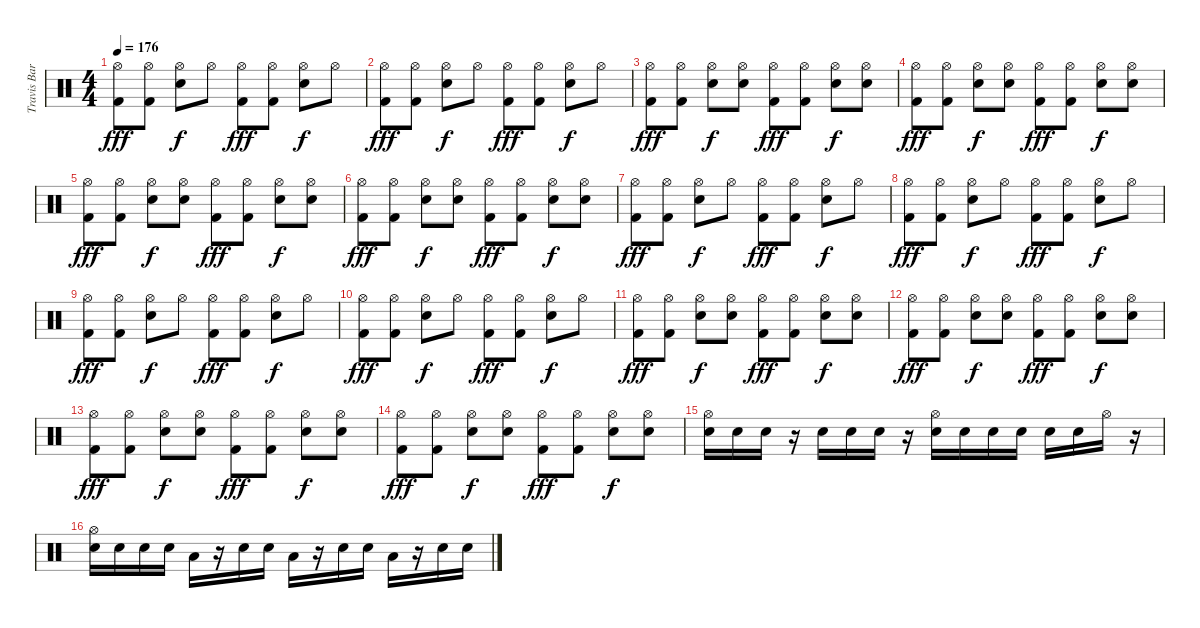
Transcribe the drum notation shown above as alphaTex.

\track ("Travis Barker - Drums" "Travis Bar") {instrument percussion}
\staff {score}
\articulation defaults
\ts (4 4)
\tempo 176
\clef neutral
\ks c
("Kick (hit) 2" "Hi-Hat (open)").8{dy fff} ("Kick (hit) 2" "Hi-Hat (open)").8 ("Snare (hit) 2" "Hi-Hat (open)").8{dy f} "Hi-Hat (open)".8 ("Kick (hit) 2" "Hi-Hat (open)").8{dy fff} ("Kick (hit) 2" "Hi-Hat (open)").8 ("Snare (hit) 2" "Hi-Hat (open)").8{dy f} "Hi-Hat (open)".8 |
("Kick (hit) 2" "Hi-Hat (open)").8{dy fff} ("Kick (hit) 2" "Hi-Hat (open)").8 ("Snare (hit) 2" "Hi-Hat (open)").8{dy f} "Hi-Hat (open)".8 ("Kick (hit) 2" "Hi-Hat (open)").8{dy fff} ("Kick (hit) 2" "Hi-Hat (open)").8 ("Snare (hit) 2" "Hi-Hat (open)").8{dy f} "Hi-Hat (open)".8 |
("Kick (hit) 2" "Hi-Hat (open)").8{dy fff} ("Kick (hit) 2" "Hi-Hat (open)").8 ("Snare (hit) 2" "Hi-Hat (open)").8{dy f} ("Snare (hit) 2" "Hi-Hat (open)").8 ("Kick (hit) 2" "Hi-Hat (open)").8{dy fff} ("Kick (hit) 2" "Hi-Hat (open)").8 ("Snare (hit) 2" "Hi-Hat (open)").8{dy f} ("Snare (hit) 2" "Hi-Hat (open)").8 |
("Kick (hit) 2" "Hi-Hat (open)").8{dy fff} ("Kick (hit) 2" "Hi-Hat (open)").8 ("Snare (hit) 2" "Hi-Hat (open)").8{dy f} ("Snare (hit) 2" "Hi-Hat (open)").8 ("Kick (hit) 2" "Hi-Hat (open)").8{dy fff} ("Kick (hit) 2" "Hi-Hat (open)").8 ("Snare (hit) 2" "Hi-Hat (open)").8{dy f} ("Snare (hit) 2" "Hi-Hat (open)").8 |
("Kick (hit) 2" "Hi-Hat (open)").8{dy fff} ("Kick (hit) 2" "Hi-Hat (open)").8 ("Snare (hit) 2" "Hi-Hat (open)").8{dy f} ("Snare (hit) 2" "Hi-Hat (open)").8 ("Kick (hit) 2" "Hi-Hat (open)").8{dy fff} ("Kick (hit) 2" "Hi-Hat (open)").8 ("Snare (hit) 2" "Hi-Hat (open)").8{dy f} ("Snare (hit) 2" "Hi-Hat (open)").8 |
("Kick (hit) 2" "Hi-Hat (open)").8{dy fff} ("Kick (hit) 2" "Hi-Hat (open)").8 ("Snare (hit) 2" "Hi-Hat (open)").8{dy f} ("Snare (hit) 2" "Hi-Hat (open)").8 ("Kick (hit) 2" "Hi-Hat (open)").8{dy fff} ("Kick (hit) 2" "Hi-Hat (open)").8 ("Snare (hit) 2" "Hi-Hat (open)").8{dy f} ("Snare (hit) 2" "Hi-Hat (open)").8 |
("Kick (hit) 2" "Hi-Hat (open)").8{dy fff} ("Kick (hit) 2" "Hi-Hat (open)").8 ("Snare (hit) 2" "Hi-Hat (open)").8{dy f} "Hi-Hat (open)".8 ("Kick (hit) 2" "Hi-Hat (open)").8{dy fff} ("Kick (hit) 2" "Hi-Hat (open)").8 ("Snare (hit) 2" "Hi-Hat (open)").8{dy f} "Hi-Hat (open)".8 |
("Kick (hit) 2" "Hi-Hat (open)").8{dy fff} ("Kick (hit) 2" "Hi-Hat (open)").8 ("Snare (hit) 2" "Hi-Hat (open)").8{dy f} "Hi-Hat (open)".8 ("Kick (hit) 2" "Hi-Hat (open)").8{dy fff} ("Kick (hit) 2" "Hi-Hat (open)").8 ("Snare (hit) 2" "Hi-Hat (open)").8{dy f} "Hi-Hat (open)".8 |
("Kick (hit) 2" "Hi-Hat (open)").8{dy fff} ("Kick (hit) 2" "Hi-Hat (open)").8 ("Snare (hit) 2" "Hi-Hat (open)").8{dy f} "Hi-Hat (open)".8 ("Kick (hit) 2" "Hi-Hat (open)").8{dy fff} ("Kick (hit) 2" "Hi-Hat (open)").8 ("Snare (hit) 2" "Hi-Hat (open)").8{dy f} "Hi-Hat (open)".8 |
("Kick (hit) 2" "Hi-Hat (open)").8{dy fff} ("Kick (hit) 2" "Hi-Hat (open)").8 ("Snare (hit) 2" "Hi-Hat (open)").8{dy f} "Hi-Hat (open)".8 ("Kick (hit) 2" "Hi-Hat (open)").8{dy fff} ("Kick (hit) 2" "Hi-Hat (open)").8 ("Snare (hit) 2" "Hi-Hat (open)").8{dy f} "Hi-Hat (open)".8 |
("Kick (hit) 2" "Hi-Hat (open)").8{dy fff} ("Kick (hit) 2" "Hi-Hat (open)").8 ("Snare (hit) 2" "Hi-Hat (open)").8{dy f} ("Snare (hit) 2" "Hi-Hat (open)").8 ("Kick (hit) 2" "Hi-Hat (open)").8{dy fff} ("Kick (hit) 2" "Hi-Hat (open)").8 ("Snare (hit) 2" "Hi-Hat (open)").8{dy f} ("Snare (hit) 2" "Hi-Hat (open)").8 |
("Kick (hit) 2" "Hi-Hat (open)").8{dy fff} ("Kick (hit) 2" "Hi-Hat (open)").8 ("Snare (hit) 2" "Hi-Hat (open)").8{dy f} ("Snare (hit) 2" "Hi-Hat (open)").8 ("Kick (hit) 2" "Hi-Hat (open)").8{dy fff} ("Kick (hit) 2" "Hi-Hat (open)").8 ("Snare (hit) 2" "Hi-Hat (open)").8{dy f} ("Snare (hit) 2" "Hi-Hat (open)").8 |
("Kick (hit) 2" "Hi-Hat (open)").8{dy fff} ("Kick (hit) 2" "Hi-Hat (open)").8 ("Snare (hit) 2" "Hi-Hat (open)").8{dy f} ("Snare (hit) 2" "Hi-Hat (open)").8 ("Kick (hit) 2" "Hi-Hat (open)").8{dy fff} ("Kick (hit) 2" "Hi-Hat (open)").8 ("Snare (hit) 2" "Hi-Hat (open)").8{dy f} ("Snare (hit) 2" "Hi-Hat (open)").8 |
("Kick (hit) 2" "Hi-Hat (open)").8{dy fff} ("Kick (hit) 2" "Hi-Hat (open)").8 ("Snare (hit) 2" "Hi-Hat (open)").8{dy f} ("Snare (hit) 2" "Hi-Hat (open)").8 ("Kick (hit) 2" "Hi-Hat (open)").8{dy fff} ("Kick (hit) 2" "Hi-Hat (open)").8 ("Snare (hit) 2" "Hi-Hat (open)").8{dy f} ("Snare (hit) 2" "Hi-Hat (open)").8 |
("Snare (hit) 2" "Hi-Hat (open)").16 "Snare (hit) 2".16 "Snare (hit) 2".16 r.16 "Snare (hit) 2".16 "Snare (hit) 2".16 "Snare (hit) 2".16 r.16 ("Snare (hit) 2" "Hi-Hat (open)").16 "Snare (hit) 2".16 "Snare (hit) 2".16 "Snare (hit) 2".16 "Snare (hit) 2".16 "Snare (hit) 2".16 "Hi-Hat (open)".16 r.16 |
("Snare (hit) 2" "Hi-Hat (open)").16 "Snare (hit) 2".16 "Snare (hit) 2".16 "Snare (hit) 2".16 "Low Tom (hit)".16 r.16 "Snare (hit) 2".16 "Snare (hit) 2".16 "Low Tom (hit)".16 r.16 "Snare (hit) 2".16 "Snare (hit) 2".16 "Low Tom (hit)".16 r.16 "Snare (hit) 2".16 "Snare (hit) 2".16
